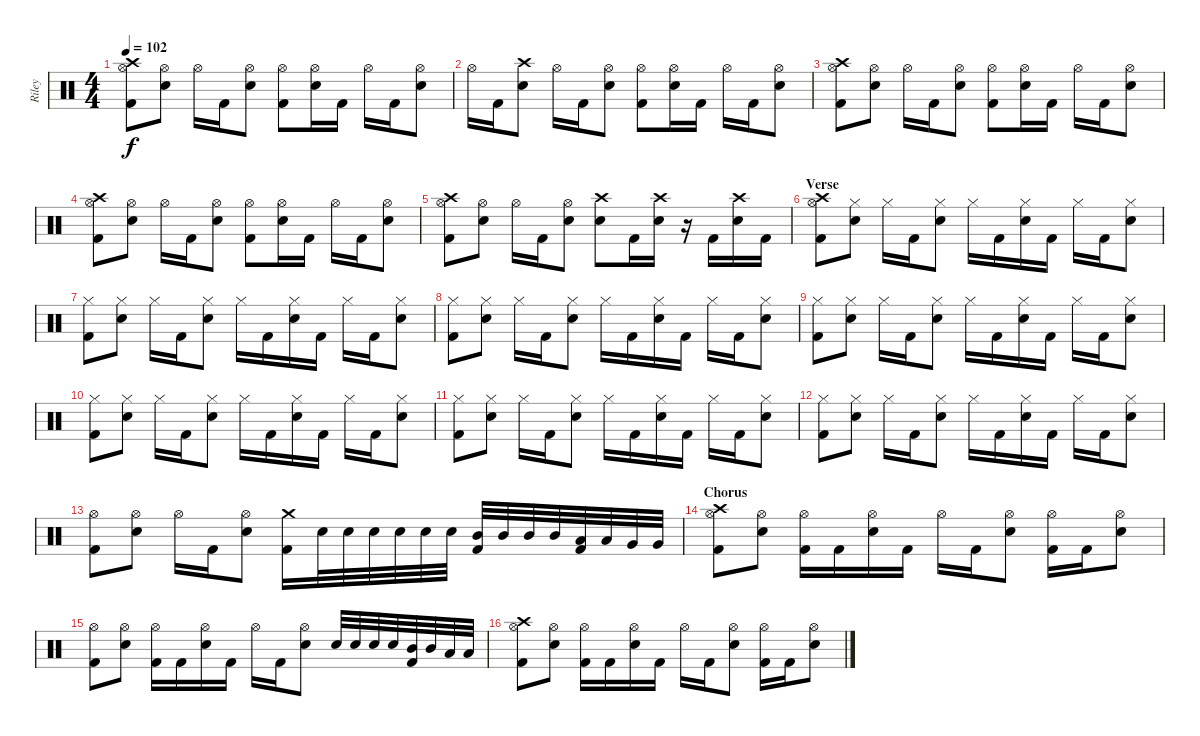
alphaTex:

\track ("Riley" "Riley") {instrument percussion}
\staff {score}
\articulation defaults
\ts (4 4)
\tempo 102
\clef neutral
\ks c
("Crash high (hit)" "Hi-Hat (open)" "Kick (hit) 2").8{dy f} ("Hi-Hat (open)" "Electric Snare (hit)").8 "Hi-Hat (open)".16 "Kick (hit) 2".16 ("Hi-Hat (open)" "Electric Snare (hit)").8 ("Hi-Hat (open)" "Kick (hit) 2").8 ("Hi-Hat (open)" "Electric Snare (hit)").16 "Kick (hit) 2".16 "Hi-Hat (open)".16 "Kick (hit) 2".16 ("Hi-Hat (open)" "Electric Snare (hit)").8 |
"Hi-Hat (open)".16 "Kick (hit) 2".16 ("Crash high (hit)" "Electric Snare (hit)").8 "Hi-Hat (open)".16 "Kick (hit) 2".16 ("Hi-Hat (open)" "Electric Snare (hit)").8 ("Hi-Hat (open)" "Kick (hit) 2").8 ("Hi-Hat (open)" "Electric Snare (hit)").16 "Kick (hit) 2".16 "Hi-Hat (open)".16 "Kick (hit) 2".16 ("Hi-Hat (open)" "Electric Snare (hit)").8 |
("Crash high (hit)" "Hi-Hat (open)" "Kick (hit) 2").8 ("Hi-Hat (open)" "Electric Snare (hit)").8 "Hi-Hat (open)".16 "Kick (hit) 2".16 ("Hi-Hat (open)" "Electric Snare (hit)").8 ("Hi-Hat (open)" "Kick (hit) 2").8 ("Hi-Hat (open)" "Electric Snare (hit)").16 "Kick (hit) 2".16 "Hi-Hat (open)".16 "Kick (hit) 2".16 ("Hi-Hat (open)" "Electric Snare (hit)").8 |
("Crash high (hit)" "Hi-Hat (open)" "Kick (hit) 2").8 ("Hi-Hat (open)" "Electric Snare (hit)").8 "Hi-Hat (open)".16 "Kick (hit) 2".16 ("Hi-Hat (open)" "Electric Snare (hit)").8 ("Hi-Hat (open)" "Kick (hit) 2").8 ("Hi-Hat (open)" "Electric Snare (hit)").16 "Kick (hit) 2".16 "Hi-Hat (open)".16 "Kick (hit) 2".16 ("Hi-Hat (open)" "Electric Snare (hit)").8 |
("Crash high (hit)" "Hi-Hat (open)" "Kick (hit) 2").8 ("Hi-Hat (open)" "Electric Snare (hit)").8 "Hi-Hat (open)".16 "Kick (hit) 2".16 ("Hi-Hat (open)" "Electric Snare (hit)").8 ("Crash high (hit)" "Electric Snare (hit)").8 "Kick (hit) 2".16 ("Crash high (hit)" "Electric Snare (hit)").16 r.16 "Kick (hit) 2".16 ("Crash high (hit)" "Electric Snare (hit)").16 "Kick (hit) 2".16 |
\section ("" "Verse")
("Crash high (hit)" "Hi-Hat (open)" "Kick (hit) 2").8 ("Hi-Hat (closed)" "Electric Snare (hit)").8 "Hi-Hat (closed)".16 "Kick (hit) 2".16 ("Hi-Hat (closed)" "Electric Snare (hit)").8 "Hi-Hat (closed)".16 "Kick (hit) 2".16 ("Hi-Hat (closed)" "Electric Snare (hit)").16 "Kick (hit) 2".16 "Hi-Hat (closed)".16 "Kick (hit) 2".16 ("Hi-Hat (closed)" "Electric Snare (hit)").8 |
("Hi-Hat (closed)" "Kick (hit) 2").8 ("Hi-Hat (closed)" "Electric Snare (hit)").8 "Hi-Hat (closed)".16 "Kick (hit) 2".16 ("Hi-Hat (closed)" "Electric Snare (hit)").8 "Hi-Hat (closed)".16 "Kick (hit) 2".16 ("Hi-Hat (closed)" "Electric Snare (hit)").16 "Kick (hit) 2".16 "Hi-Hat (closed)".16 "Kick (hit) 2".16 ("Hi-Hat (closed)" "Electric Snare (hit)").8 |
("Hi-Hat (closed)" "Kick (hit) 2").8 ("Hi-Hat (closed)" "Electric Snare (hit)").8 "Hi-Hat (closed)".16 "Kick (hit) 2".16 ("Hi-Hat (closed)" "Electric Snare (hit)").8 "Hi-Hat (closed)".16 "Kick (hit) 2".16 ("Hi-Hat (closed)" "Electric Snare (hit)").16 "Kick (hit) 2".16 "Hi-Hat (closed)".16 "Kick (hit) 2".16 ("Hi-Hat (closed)" "Electric Snare (hit)").8 |
("Hi-Hat (closed)" "Kick (hit) 2").8 ("Hi-Hat (closed)" "Electric Snare (hit)").8 "Hi-Hat (closed)".16 "Kick (hit) 2".16 ("Hi-Hat (closed)" "Electric Snare (hit)").8 "Hi-Hat (closed)".16 "Kick (hit) 2".16 ("Hi-Hat (closed)" "Electric Snare (hit)").16 "Kick (hit) 2".16 "Hi-Hat (closed)".16 "Kick (hit) 2".16 ("Hi-Hat (closed)" "Electric Snare (hit)").8 |
("Hi-Hat (closed)" "Kick (hit) 2").8 ("Hi-Hat (closed)" "Electric Snare (hit)").8 "Hi-Hat (closed)".16 "Kick (hit) 2".16 ("Hi-Hat (closed)" "Electric Snare (hit)").8 "Hi-Hat (closed)".16 "Kick (hit) 2".16 ("Hi-Hat (closed)" "Electric Snare (hit)").16 "Kick (hit) 2".16 "Hi-Hat (closed)".16 "Kick (hit) 2".16 ("Hi-Hat (closed)" "Electric Snare (hit)").8 |
("Hi-Hat (closed)" "Kick (hit) 2").8 ("Hi-Hat (closed)" "Electric Snare (hit)").8 "Hi-Hat (closed)".16 "Kick (hit) 2".16 ("Hi-Hat (closed)" "Electric Snare (hit)").8 "Hi-Hat (closed)".16 "Kick (hit) 2".16 ("Hi-Hat (closed)" "Electric Snare (hit)").16 "Kick (hit) 2".16 "Hi-Hat (closed)".16 "Kick (hit) 2".16 ("Hi-Hat (closed)" "Electric Snare (hit)").8 |
("Hi-Hat (closed)" "Kick (hit) 2").8 ("Hi-Hat (closed)" "Electric Snare (hit)").8 "Hi-Hat (closed)".16 "Kick (hit) 2".16 ("Hi-Hat (closed)" "Electric Snare (hit)").8 "Hi-Hat (closed)".16 "Kick (hit) 2".16 ("Hi-Hat (closed)" "Electric Snare (hit)").16 "Kick (hit) 2".16 "Hi-Hat (closed)".16 "Kick (hit) 2".16 ("Hi-Hat (closed)" "Electric Snare (hit)").8 |
("Hi-Hat (open)" "Kick (hit) 2").8 ("Hi-Hat (open)" "Electric Snare (hit)").8 "Hi-Hat (open)".16 "Kick (hit) 2".16 ("Hi-Hat (open)" "Electric Snare (hit)").8 ("Crash medium (hit)" "Kick (hit) 2").16 "Electric Snare (hit)".32 "Electric Snare (hit)".32 "Electric Snare (hit)".32 "Electric Snare (hit)".32 "Electric Snare (hit)".32 "Electric Snare (hit)".32 ("Mid Tom (hit)" "Kick (hit) 2").32 "Mid Tom (hit)".32 "Mid Tom (hit)".32 "Mid Tom (hit)".32 ("Low Tom (hit)" "Kick (hit) 2").32 "Low Tom (hit)".32 "Very Low Tom (hit)".32 "Very Low Tom (hit)".32 |
\section ("" "Chorus")
("Crash high (hit)" "Hi-Hat (open)" "Kick (hit) 2").8 ("Hi-Hat (open)" "Electric Snare (hit)").8 ("Hi-Hat (open)" "Kick (hit) 2").16 "Kick (hit) 2".16 ("Hi-Hat (open)" "Electric Snare (hit)").16 "Kick (hit) 2".16 "Hi-Hat (open)".16 "Kick (hit) 2".16 ("Hi-Hat (open)" "Electric Snare (hit)").8 ("Hi-Hat (open)" "Kick (hit) 2").16 "Kick (hit) 2".16 ("Hi-Hat (open)" "Electric Snare (hit)").8 |
("Hi-Hat (open)" "Kick (hit) 2").8 ("Hi-Hat (open)" "Electric Snare (hit)").8 ("Hi-Hat (open)" "Kick (hit) 2").16 "Kick (hit) 2".16 ("Hi-Hat (open)" "Electric Snare (hit)").16 "Kick (hit) 2".16 "Hi-Hat (open)".16 "Kick (hit) 2".16 ("Hi-Hat (open)" "Electric Snare (hit)").8 "Electric Snare (hit)".32 "Electric Snare (hit)".32 "Electric Snare (hit)".32 "Electric Snare (hit)".32 ("Mid Tom (hit)" "Kick (hit) 2").32 "Mid Tom (hit)".32 "Low Tom (hit)".32 "Low Tom (hit)".32 |
("Crash high (hit)" "Hi-Hat (open)" "Kick (hit) 2").8 ("Hi-Hat (open)" "Electric Snare (hit)").8 ("Hi-Hat (open)" "Kick (hit) 2").16 "Kick (hit) 2".16 ("Hi-Hat (open)" "Electric Snare (hit)").16 "Kick (hit) 2".16 "Hi-Hat (open)".16 "Kick (hit) 2".16 ("Hi-Hat (open)" "Electric Snare (hit)").8 ("Hi-Hat (open)" "Kick (hit) 2").16 "Kick (hit) 2".16 ("Hi-Hat (open)" "Electric Snare (hit)").8
